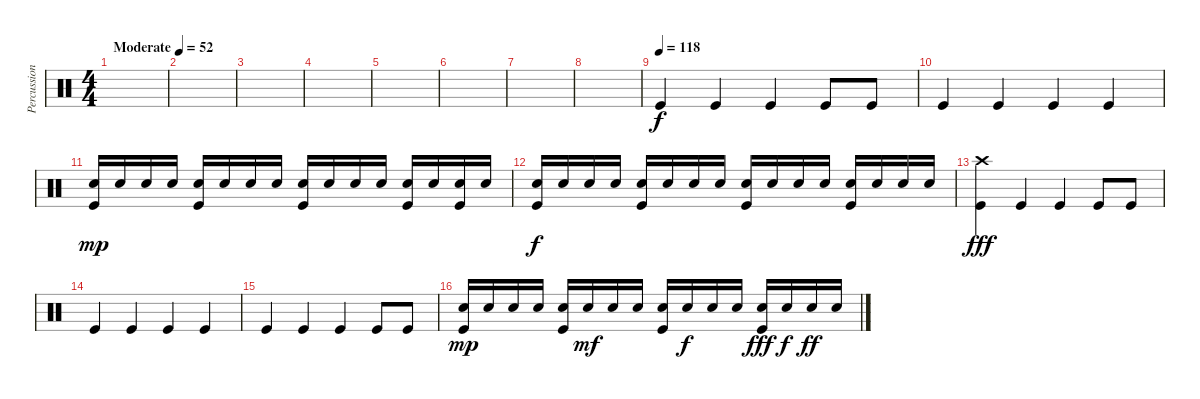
\track ("Percussion" "Percussion") {instrument percussion}
\staff {score}
\articulation defaults
\ts (4 4)
\tempo (52 "Moderate")
\clef neutral
\ks c
|
|
|
|
|
|
|
|
\tempo (118)
"Kick (hit)".4 "Kick (hit)".4 "Kick (hit)".4 "Kick (hit)".8 "Kick (hit)".8 |
"Kick (hit)".4 "Kick (hit)".4 "Kick (hit)".4 "Kick (hit)".4 |
("Kick (hit)" "Snare (hit) 2").16{dy mp} "Snare (hit) 2".16 "Snare (hit) 2".16 "Snare (hit) 2".16 ("Kick (hit)" "Snare (hit) 2").16 "Snare (hit) 2".16 "Snare (hit) 2".16 "Snare (hit) 2".16 ("Kick (hit)" "Snare (hit) 2").16 "Snare (hit) 2".16 "Snare (hit) 2".16 "Snare (hit) 2".16 ("Kick (hit)" "Snare (hit) 2").16 "Snare (hit) 2".16 ("Kick (hit)" "Snare (hit) 2").16 "Snare (hit) 2".16 |
("Kick (hit)" "Snare (hit) 2").16{dy f} "Snare (hit) 2".16 "Snare (hit) 2".16 "Snare (hit) 2".16 ("Kick (hit)" "Snare (hit) 2").16 "Snare (hit) 2".16 "Snare (hit) 2".16 "Snare (hit) 2".16 ("Kick (hit)" "Snare (hit) 2").16 "Snare (hit) 2".16 "Snare (hit) 2".16 "Snare (hit) 2".16 ("Kick (hit)" "Snare (hit) 2").16 "Snare (hit) 2".16 "Snare (hit) 2".16 "Snare (hit) 2".16 |
("Kick (hit)" "Crash high (hit)").4{dy fff} "Kick (hit)".4 "Kick (hit)".4 "Kick (hit)".8 "Kick (hit)".8 |
"Kick (hit)".4 "Kick (hit)".4 "Kick (hit)".4 "Kick (hit)".4 |
"Kick (hit)".4 "Kick (hit)".4 "Kick (hit)".4 "Kick (hit)".8 "Kick (hit)".8 |
("Kick (hit)" "Snare (hit) 2").16{dy mp} "Snare (hit) 2".16 "Snare (hit) 2".16 "Snare (hit) 2".16 ("Kick (hit)" "Snare (hit) 2").16 "Snare (hit) 2".16{dy mf} "Snare (hit) 2".16 "Snare (hit) 2".16 ("Kick (hit)" "Snare (hit) 2").16 "Snare (hit) 2".16{dy f} "Snare (hit) 2".16 "Snare (hit) 2".16 ("Kick (hit)" "Snare (hit) 2").16{dy fff} "Snare (hit) 2".16{dy f} "Snare (hit) 2".16{dy ff} "Snare (hit) 2".16
